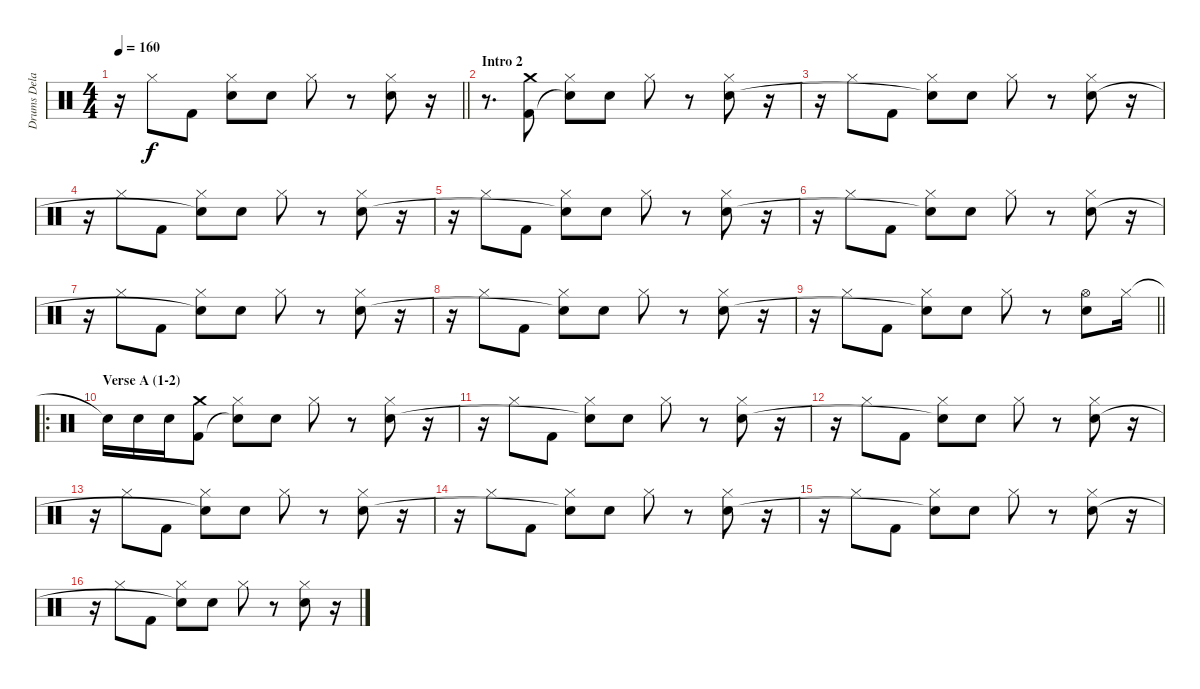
\track ("Drums Delay 2" "Drums Dela") {instrument percussion}
\staff {score}
\articulation defaults
\ts (4 4)
\tempo 160
\clef neutral
\barLineRight lightlight
\ks c
r.16{dy f} "Hi-Hat (closed)".8 "Kick (hit) 2".8 ("Hi-Hat (closed)" "Snare (hit)"{t}).8 "Electric Snare (hit)".8 "Hi-Hat (closed)".8 r.8 ("Hi-Hat (closed)" "Electric Snare (hit)").8 r.16 |
\section ("" "Intro 2")
r.8{d} ("Crash medium (hit)" "Kick (hit) 2").8 ("Hi-Hat (closed)" "Snare (hit)"{t}).8 "Electric Snare (hit)".8 "Hi-Hat (closed)".8 r.8 ("Hi-Hat (closed)" "Electric Snare (hit)").8 r.16 |
r.16 "Hi-Hat (closed)".8 "Kick (hit) 2".8 ("Hi-Hat (closed)" "Snare (hit)"{t}).8 "Electric Snare (hit)".8 "Hi-Hat (closed)".8 r.8 ("Hi-Hat (closed)" "Electric Snare (hit)").8 r.16 |
r.16 "Hi-Hat (closed)".8 "Kick (hit) 2".8 ("Hi-Hat (closed)" "Snare (hit)"{t}).8 "Electric Snare (hit)".8 "Hi-Hat (closed)".8 r.8 ("Hi-Hat (closed)" "Electric Snare (hit)").8 r.16 |
r.16 "Hi-Hat (closed)".8 "Kick (hit) 2".8 ("Hi-Hat (closed)" "Snare (hit)"{t}).8 "Electric Snare (hit)".8 "Hi-Hat (closed)".8 r.8 ("Hi-Hat (closed)" "Electric Snare (hit)").8 r.16 |
r.16 "Hi-Hat (closed)".8 "Kick (hit) 2".8 ("Hi-Hat (closed)" "Snare (hit)"{t}).8 "Electric Snare (hit)".8 "Hi-Hat (closed)".8 r.8 ("Hi-Hat (closed)" "Electric Snare (hit)").8 r.16 |
r.16 "Hi-Hat (closed)".8 "Kick (hit) 2".8 ("Hi-Hat (closed)" "Snare (hit)"{t}).8 "Electric Snare (hit)".8 "Hi-Hat (closed)".8 r.8 ("Hi-Hat (closed)" "Electric Snare (hit)").8 r.16 |
r.16 "Hi-Hat (closed)".8 "Kick (hit) 2".8 ("Hi-Hat (closed)" "Snare (hit)"{t}).8 "Electric Snare (hit)".8 "Hi-Hat (closed)".8 r.8 ("Hi-Hat (closed)" "Electric Snare (hit)").8 r.16 |
\barLineRight lightlight
r.16 "Hi-Hat (closed)".8 "Kick (hit) 2".8 ("Hi-Hat (closed)" "Snare (hit)"{t}).8 "Electric Snare (hit)".8 "Hi-Hat (closed)".8 r.8 ("Hi-Hat (open)" "Electric Snare (hit)").8 "Hi-Hat (closed)".16 |
\ro
\section ("" "Verse A (1-2)")
"Snare (hit)"{t}.16 "Electric Snare (hit)".16 "Electric Snare (hit)".16 ("Crash medium (hit)" "Kick (hit) 2").8 ("Hi-Hat (closed)" "Snare (hit)"{t}).8 "Electric Snare (hit)".8 "Hi-Hat (closed)".8 r.8 ("Hi-Hat (closed)" "Electric Snare (hit)").8 r.16 |
r.16 "Hi-Hat (closed)".8 "Kick (hit) 2".8 ("Hi-Hat (closed)" "Snare (hit)"{t}).8 "Electric Snare (hit)".8 "Hi-Hat (closed)".8 r.8 ("Hi-Hat (closed)" "Electric Snare (hit)").8 r.16 |
r.16 "Hi-Hat (closed)".8 "Kick (hit) 2".8 ("Hi-Hat (closed)" "Snare (hit)"{t}).8 "Electric Snare (hit)".8 "Hi-Hat (closed)".8 r.8 ("Hi-Hat (closed)" "Electric Snare (hit)").8 r.16 |
r.16 "Hi-Hat (closed)".8 "Kick (hit) 2".8 ("Hi-Hat (closed)" "Snare (hit)"{t}).8 "Electric Snare (hit)".8 "Hi-Hat (closed)".8 r.8 ("Hi-Hat (closed)" "Electric Snare (hit)").8 r.16 |
r.16 "Hi-Hat (closed)".8 "Kick (hit) 2".8 ("Hi-Hat (closed)" "Snare (hit)"{t}).8 "Electric Snare (hit)".8 "Hi-Hat (closed)".8 r.8 ("Hi-Hat (closed)" "Electric Snare (hit)").8 r.16 |
r.16 "Hi-Hat (closed)".8 "Kick (hit) 2".8 ("Hi-Hat (closed)" "Snare (hit)"{t}).8 "Electric Snare (hit)".8 "Hi-Hat (closed)".8 r.8 ("Hi-Hat (closed)" "Electric Snare (hit)").8 r.16 |
r.16 "Hi-Hat (closed)".8 "Kick (hit) 2".8 ("Hi-Hat (closed)" "Snare (hit)"{t}).8 "Electric Snare (hit)".8 "Hi-Hat (closed)".8 r.8 ("Hi-Hat (closed)" "Electric Snare (hit)").8 r.16
